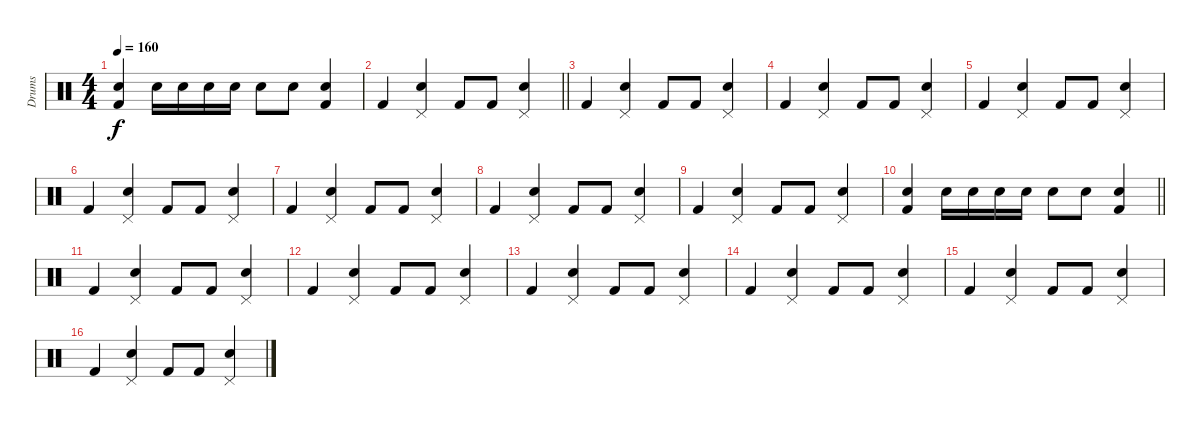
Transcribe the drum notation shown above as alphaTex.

\track ("Drums" "Drums") {instrument percussion}
\staff {score}
\articulation defaults
\ts (4 4)
\tempo 160
\clef neutral
\ks c
("Kick (hit) 2" "Electric Snare (hit)").4{dy f} "Electric Snare (hit)".16 "Electric Snare (hit)".16 "Electric Snare (hit)".16 "Electric Snare (hit)".16 "Electric Snare (hit)".8 "Electric Snare (hit)".8 ("Kick (hit) 2" "Electric Snare (hit)").4 |
\barLineRight lightlight "Kick (hit) 2".4
("Pedal Hi-Hat (hit)" "Electric Snare (hit)").4 "Kick (hit) 2".8 "Kick (hit) 2".8 ("Pedal Hi-Hat (hit)" "Electric Snare (hit)").4 |
"Kick (hit) 2".4 ("Pedal Hi-Hat (hit)" "Electric Snare (hit)").4 "Kick (hit) 2".8 "Kick (hit) 2".8 ("Pedal Hi-Hat (hit)" "Electric Snare (hit)").4 |
"Kick (hit) 2".4 ("Pedal Hi-Hat (hit)" "Electric Snare (hit)").4 "Kick (hit) 2".8 "Kick (hit) 2".8 ("Pedal Hi-Hat (hit)" "Electric Snare (hit)").4 |
"Kick (hit) 2".4 ("Pedal Hi-Hat (hit)" "Electric Snare (hit)").4 "Kick (hit) 2".8 "Kick (hit) 2".8 ("Pedal Hi-Hat (hit)" "Electric Snare (hit)").4 |
"Kick (hit) 2".4 ("Pedal Hi-Hat (hit)" "Electric Snare (hit)").4 "Kick (hit) 2".8 "Kick (hit) 2".8 ("Pedal Hi-Hat (hit)" "Electric Snare (hit)").4 |
"Kick (hit) 2".4 ("Pedal Hi-Hat (hit)" "Electric Snare (hit)").4 "Kick (hit) 2".8 "Kick (hit) 2".8 ("Pedal Hi-Hat (hit)" "Electric Snare (hit)").4 |
"Kick (hit) 2".4 ("Pedal Hi-Hat (hit)" "Electric Snare (hit)").4 "Kick (hit) 2".8 "Kick (hit) 2".8 ("Pedal Hi-Hat (hit)" "Electric Snare (hit)").4 |
"Kick (hit) 2".4 ("Pedal Hi-Hat (hit)" "Electric Snare (hit)").4 "Kick (hit) 2".8 "Kick (hit) 2".8 ("Pedal Hi-Hat (hit)" "Electric Snare (hit)").4 |
\barLineRight lightlight
("Kick (hit) 2" "Electric Snare (hit)").4 "Electric Snare (hit)".16 "Electric Snare (hit)".16 "Electric Snare (hit)".16 "Electric Snare (hit)".16 "Electric Snare (hit)".8 "Electric Snare (hit)".8 ("Kick (hit) 2" "Electric Snare (hit)").4 |
"Kick (hit) 2".4 ("Pedal Hi-Hat (hit)" "Electric Snare (hit)").4 "Kick (hit) 2".8 "Kick (hit) 2".8 ("Pedal Hi-Hat (hit)" "Electric Snare (hit)").4 |
"Kick (hit) 2".4 ("Pedal Hi-Hat (hit)" "Electric Snare (hit)").4 "Kick (hit) 2".8 "Kick (hit) 2".8 ("Pedal Hi-Hat (hit)" "Electric Snare (hit)").4 |
"Kick (hit) 2".4 ("Pedal Hi-Hat (hit)" "Electric Snare (hit)").4 "Kick (hit) 2".8 "Kick (hit) 2".8 ("Pedal Hi-Hat (hit)" "Electric Snare (hit)").4 |
"Kick (hit) 2".4 ("Pedal Hi-Hat (hit)" "Electric Snare (hit)").4 "Kick (hit) 2".8 "Kick (hit) 2".8 ("Pedal Hi-Hat (hit)" "Electric Snare (hit)").4 |
"Kick (hit) 2".4 ("Pedal Hi-Hat (hit)" "Electric Snare (hit)").4 "Kick (hit) 2".8 "Kick (hit) 2".8 ("Pedal Hi-Hat (hit)" "Electric Snare (hit)").4 |
"Kick (hit) 2".4 ("Pedal Hi-Hat (hit)" "Electric Snare (hit)").4 "Kick (hit) 2".8 "Kick (hit) 2".8 ("Pedal Hi-Hat (hit)" "Electric Snare (hit)").4
